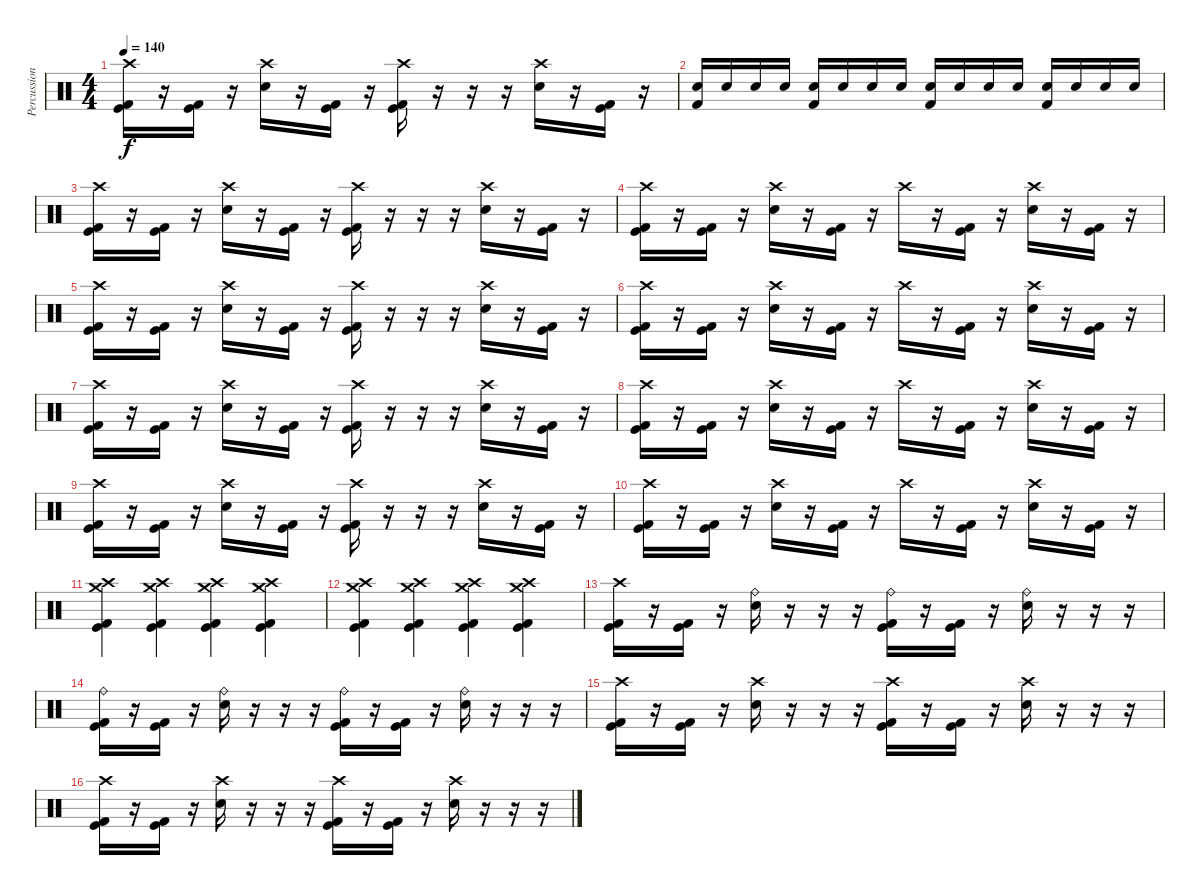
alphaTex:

\track ("Percussion" "Percussion") {instrument percussion}
\staff {score}
\articulation defaults
\ts (4 4)
\tempo 140
\clef neutral
\ks c
("Crash high (hit)" "Kick (hit)" "Kick (hit) 2").16{dy f} r.16 ("Kick (hit)" "Kick (hit) 2").16 r.16 ("Crash high (hit)" "Electric Snare (hit)").16 r.16 ("Kick (hit)" "Kick (hit) 2").16 r.16 ("Crash high (hit)" "Kick (hit)" "Kick (hit) 2").16 r.16 r.16 r.16 ("Crash high (hit)" "Electric Snare (hit)").16 r.16 ("Kick (hit)" "Kick (hit) 2").16 r.16 |
("Electric Snare (hit)" "Kick (hit) 2").16 "Electric Snare (hit)".16 "Electric Snare (hit)".16 "Electric Snare (hit)".16 ("Electric Snare (hit)" "Kick (hit) 2").16 "Electric Snare (hit)".16 "Electric Snare (hit)".16 "Electric Snare (hit)".16 ("Electric Snare (hit)" "Kick (hit) 2").16 "Electric Snare (hit)".16 "Electric Snare (hit)".16 "Electric Snare (hit)".16 ("Electric Snare (hit)" "Kick (hit) 2").16 "Electric Snare (hit)".16 "Electric Snare (hit)".16 "Electric Snare (hit)".16 |
("Crash high (hit)" "Kick (hit)" "Kick (hit) 2").16 r.16 ("Kick (hit)" "Kick (hit) 2").16 r.16 ("Crash high (hit)" "Electric Snare (hit)").16 r.16 ("Kick (hit)" "Kick (hit) 2").16 r.16 ("Crash high (hit)" "Kick (hit)" "Kick (hit) 2").16 r.16 r.16 r.16 ("Crash high (hit)" "Electric Snare (hit)").16 r.16 ("Kick (hit)" "Kick (hit) 2").16 r.16 |
("Crash high (hit)" "Kick (hit)" "Kick (hit) 2").16 r.16 ("Kick (hit)" "Kick (hit) 2").16 r.16 ("Crash high (hit)" "Electric Snare (hit)").16 r.16 ("Kick (hit)" "Kick (hit) 2").16 r.16 "Crash high (hit)".16 r.16 ("Kick (hit)" "Kick (hit) 2").16 r.16 ("Crash high (hit)" "Electric Snare (hit)").16 r.16 ("Kick (hit)" "Kick (hit) 2").16 r.16 |
("Crash high (hit)" "Kick (hit)" "Kick (hit) 2").16 r.16 ("Kick (hit)" "Kick (hit) 2").16 r.16 ("Crash high (hit)" "Electric Snare (hit)").16 r.16 ("Kick (hit)" "Kick (hit) 2").16 r.16 ("Crash high (hit)" "Kick (hit)" "Kick (hit) 2").16 r.16 r.16 r.16 ("Crash high (hit)" "Electric Snare (hit)").16 r.16 ("Kick (hit)" "Kick (hit) 2").16 r.16 |
("Crash high (hit)" "Kick (hit)" "Kick (hit) 2").16 r.16 ("Kick (hit)" "Kick (hit) 2").16 r.16 ("Crash high (hit)" "Electric Snare (hit)").16 r.16 ("Kick (hit)" "Kick (hit) 2").16 r.16 "Crash high (hit)".16 r.16 ("Kick (hit)" "Kick (hit) 2").16 r.16 ("Crash high (hit)" "Electric Snare (hit)").16 r.16 ("Kick (hit)" "Kick (hit) 2").16 r.16 |
("Crash high (hit)" "Kick (hit)" "Kick (hit) 2").16 r.16 ("Kick (hit)" "Kick (hit) 2").16 r.16 ("Crash high (hit)" "Electric Snare (hit)").16 r.16 ("Kick (hit)" "Kick (hit) 2").16 r.16 ("Crash high (hit)" "Kick (hit)" "Kick (hit) 2").16 r.16 r.16 r.16 ("Crash high (hit)" "Electric Snare (hit)").16 r.16 ("Kick (hit)" "Kick (hit) 2").16 r.16 |
("Crash high (hit)" "Kick (hit)" "Kick (hit) 2").16 r.16 ("Kick (hit)" "Kick (hit) 2").16 r.16 ("Crash high (hit)" "Electric Snare (hit)").16 r.16 ("Kick (hit)" "Kick (hit) 2").16 r.16 "Crash high (hit)".16 r.16 ("Kick (hit)" "Kick (hit) 2").16 r.16 ("Crash high (hit)" "Electric Snare (hit)").16 r.16 ("Kick (hit)" "Kick (hit) 2").16 r.16 |
("Crash high (hit)" "Kick (hit)" "Kick (hit) 2").16 r.16 ("Kick (hit)" "Kick (hit) 2").16 r.16 ("Crash high (hit)" "Electric Snare (hit)").16 r.16 ("Kick (hit)" "Kick (hit) 2").16 r.16 ("Crash high (hit)" "Kick (hit)" "Kick (hit) 2").16 r.16 r.16 r.16 ("Crash high (hit)" "Electric Snare (hit)").16 r.16 ("Kick (hit)" "Kick (hit) 2").16 r.16 |
("Crash high (hit)" "Kick (hit)" "Kick (hit) 2").16 r.16 ("Kick (hit)" "Kick (hit) 2").16 r.16 ("Crash high (hit)" "Electric Snare (hit)").16 r.16 ("Kick (hit)" "Kick (hit) 2").16 r.16 "Crash high (hit)".16 r.16 ("Kick (hit)" "Kick (hit) 2").16 r.16 ("Crash high (hit)" "Electric Snare (hit)").16 r.16 ("Kick (hit)" "Kick (hit) 2").16 r.16 |
("Crash high (hit)" "Crash medium (hit)" "Kick (hit)" "Kick (hit) 2").4 ("Crash high (hit)" "Crash medium (hit)" "Kick (hit)" "Kick (hit) 2").4 ("Crash high (hit)" "Crash medium (hit)" "Kick (hit)" "Kick (hit) 2").4 ("Crash high (hit)" "Crash medium (hit)" "Kick (hit)" "Kick (hit) 2").4 |
("Crash high (hit)" "Crash medium (hit)" "Kick (hit)" "Kick (hit) 2").4 ("Crash high (hit)" "Crash medium (hit)" "Kick (hit)" "Kick (hit) 2").4 ("Crash high (hit)" "Crash medium (hit)" "Kick (hit)" "Kick (hit) 2").4 ("Crash high (hit)" "Crash medium (hit)" "Kick (hit)" "Kick (hit) 2").4 |
("Crash high (hit)" "Kick (hit)" "Kick (hit) 2").16 r.16 ("Kick (hit)" "Kick (hit) 2").16 r.16 ("Ride (bell)" "Electric Snare (hit)").16 r.16 r.16 r.16 ("Ride (bell)" "Kick (hit)" "Kick (hit) 2").16 r.16 ("Kick (hit)" "Kick (hit) 2").16 r.16 ("Ride (bell)" "Electric Snare (hit)").16 r.16 r.16 r.16 |
("Ride (bell)" "Kick (hit)" "Kick (hit) 2").16 r.16 ("Kick (hit)" "Kick (hit) 2").16 r.16 ("Ride (bell)" "Electric Snare (hit)").16 r.16 r.16 r.16 ("Ride (bell)" "Kick (hit)" "Kick (hit) 2").16 r.16 ("Kick (hit)" "Kick (hit) 2").16 r.16 ("Ride (bell)" "Electric Snare (hit)").16 r.16 r.16 r.16 |
("Crash high (hit)" "Kick (hit)" "Kick (hit) 2").16 r.16 ("Kick (hit)" "Kick (hit) 2").16 r.16 ("Crash high (hit)" "Electric Snare (hit)").16 r.16 r.16 r.16 ("Crash high (hit)" "Kick (hit)" "Kick (hit) 2").16 r.16 ("Kick (hit)" "Kick (hit) 2").16 r.16 ("Crash high (hit)" "Electric Snare (hit)").16 r.16 r.16 r.16 |
("Crash high (hit)" "Kick (hit)" "Kick (hit) 2").16 r.16 ("Kick (hit)" "Kick (hit) 2").16 r.16 ("Crash high (hit)" "Electric Snare (hit)").16 r.16 r.16 r.16 ("Crash high (hit)" "Kick (hit)" "Kick (hit) 2").16 r.16 ("Kick (hit)" "Kick (hit) 2").16 r.16 ("Crash high (hit)" "Electric Snare (hit)").16 r.16 r.16 r.16
